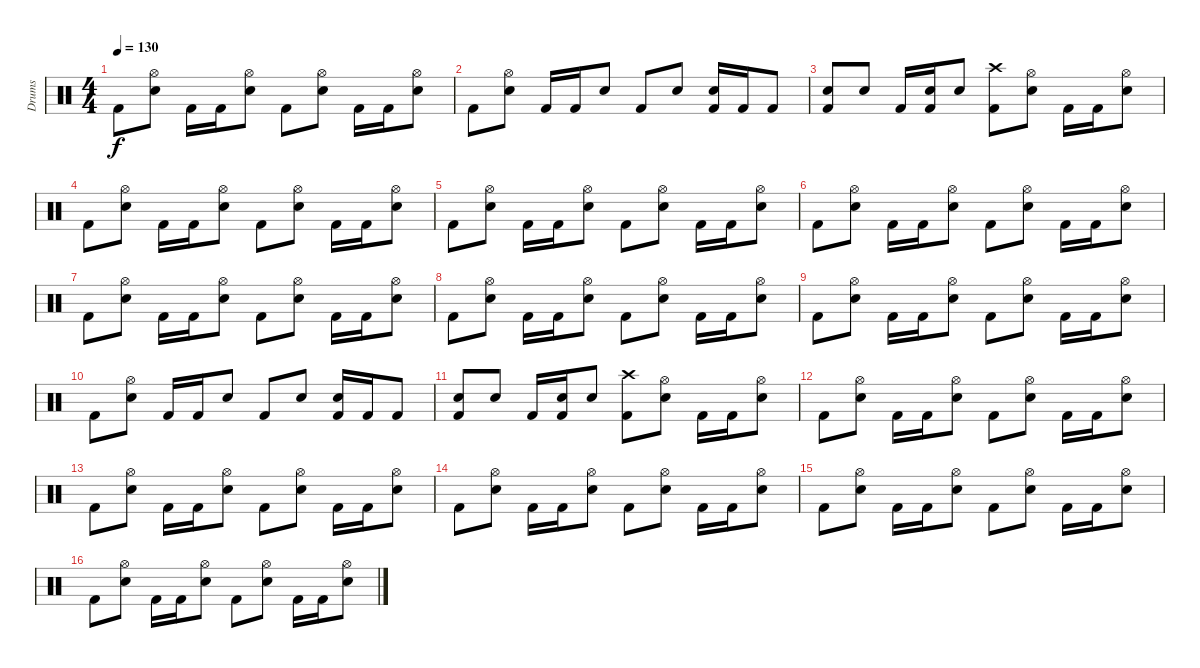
\track ("Drums" "Drums") {instrument percussion}
\staff {score}
\articulation defaults
\ts (4 4)
\tempo 130
\clef neutral
\ks c "Kick (hit) 2".8{dy f}
("Hi-Hat (open)" "Snare (hit) 2").8 "Kick (hit) 2".16 "Kick (hit) 2".16 ("Hi-Hat (open)" "Snare (hit) 2").8 "Kick (hit) 2".8 ("Hi-Hat (open)" "Snare (hit) 2").8 "Kick (hit) 2".16 "Kick (hit) 2".16 ("Hi-Hat (open)" "Snare (hit) 2").8 |
"Kick (hit) 2".8 ("Hi-Hat (open)" "Snare (hit) 2").8 "Kick (hit) 2".16 "Kick (hit) 2".16 "Snare (hit) 2".8 "Kick (hit) 2".8 "Snare (hit) 2".8 ("Snare (hit) 2" "Kick (hit) 2").16 "Kick (hit) 2".16 "Kick (hit) 2".8 |
("Snare (hit) 2" "Kick (hit) 2").8 "Snare (hit) 2".8 "Kick (hit) 2".16 ("Snare (hit) 2" "Kick (hit) 2").16 "Snare (hit) 2".8 ("Crash high (hit)" "Kick (hit) 2").8 ("Hi-Hat (open)" "Snare (hit) 2").8 "Kick (hit) 2".16 "Kick (hit) 2".16 ("Hi-Hat (open)" "Snare (hit) 2").8 |
"Kick (hit) 2".8 ("Hi-Hat (open)" "Snare (hit) 2").8 "Kick (hit) 2".16 "Kick (hit) 2".16 ("Hi-Hat (open)" "Snare (hit) 2").8 "Kick (hit) 2".8 ("Hi-Hat (open)" "Snare (hit) 2").8 "Kick (hit) 2".16 "Kick (hit) 2".16 ("Hi-Hat (open)" "Snare (hit) 2").8 |
"Kick (hit) 2".8 ("Hi-Hat (open)" "Snare (hit) 2").8 "Kick (hit) 2".16 "Kick (hit) 2".16 ("Hi-Hat (open)" "Snare (hit) 2").8 "Kick (hit) 2".8 ("Hi-Hat (open)" "Snare (hit) 2").8 "Kick (hit) 2".16 "Kick (hit) 2".16 ("Hi-Hat (open)" "Snare (hit) 2").8 |
"Kick (hit) 2".8 ("Hi-Hat (open)" "Snare (hit) 2").8 "Kick (hit) 2".16 "Kick (hit) 2".16 ("Hi-Hat (open)" "Snare (hit) 2").8 "Kick (hit) 2".8 ("Hi-Hat (open)" "Snare (hit) 2").8 "Kick (hit) 2".16 "Kick (hit) 2".16 ("Snare (hit) 2" "Hi-Hat (open)").8 |
"Kick (hit) 2".8 ("Hi-Hat (open)" "Snare (hit) 2").8 "Kick (hit) 2".16 "Kick (hit) 2".16 ("Hi-Hat (open)" "Snare (hit) 2").8 "Kick (hit) 2".8 ("Hi-Hat (open)" "Snare (hit) 2").8 "Kick (hit) 2".16 "Kick (hit) 2".16 ("Hi-Hat (open)" "Snare (hit) 2").8 |
"Kick (hit) 2".8 ("Hi-Hat (open)" "Snare (hit) 2").8 "Kick (hit) 2".16 "Kick (hit) 2".16 ("Hi-Hat (open)" "Snare (hit) 2").8 "Kick (hit) 2".8 ("Hi-Hat (open)" "Snare (hit) 2").8 "Kick (hit) 2".16 "Kick (hit) 2".16 ("Hi-Hat (open)" "Snare (hit) 2").8 |
"Kick (hit) 2".8 ("Hi-Hat (open)" "Snare (hit) 2").8 "Kick (hit) 2".16 "Kick (hit) 2".16 ("Hi-Hat (open)" "Snare (hit) 2").8 "Kick (hit) 2".8 ("Hi-Hat (open)" "Snare (hit) 2").8 "Kick (hit) 2".16 "Kick (hit) 2".16 ("Hi-Hat (open)" "Snare (hit) 2").8 |
"Kick (hit) 2".8 ("Hi-Hat (open)" "Snare (hit) 2").8 "Kick (hit) 2".16 "Kick (hit) 2".16 "Snare (hit) 2".8 "Kick (hit) 2".8 "Snare (hit) 2".8 ("Snare (hit) 2" "Kick (hit) 2").16 "Kick (hit) 2".16 "Kick (hit) 2".8 |
("Snare (hit) 2" "Kick (hit) 2").8 "Snare (hit) 2".8 "Kick (hit) 2".16 ("Snare (hit) 2" "Kick (hit) 2").16 "Snare (hit) 2".8 ("Crash high (hit)" "Kick (hit) 2").8 ("Hi-Hat (open)" "Snare (hit) 2").8 "Kick (hit) 2".16 "Kick (hit) 2".16 ("Hi-Hat (open)" "Snare (hit) 2").8 |
"Kick (hit) 2".8 ("Hi-Hat (open)" "Snare (hit) 2").8 "Kick (hit) 2".16 "Kick (hit) 2".16 ("Hi-Hat (open)" "Snare (hit) 2").8 "Kick (hit) 2".8 ("Hi-Hat (open)" "Snare (hit) 2").8 "Kick (hit) 2".16 "Kick (hit) 2".16 ("Hi-Hat (open)" "Snare (hit) 2").8 |
"Kick (hit) 2".8 ("Hi-Hat (open)" "Snare (hit) 2").8 "Kick (hit) 2".16 "Kick (hit) 2".16 ("Hi-Hat (open)" "Snare (hit) 2").8 "Kick (hit) 2".8 ("Hi-Hat (open)" "Snare (hit) 2").8 "Kick (hit) 2".16 "Kick (hit) 2".16 ("Hi-Hat (open)" "Snare (hit) 2").8 |
"Kick (hit) 2".8 ("Hi-Hat (open)" "Snare (hit) 2").8 "Kick (hit) 2".16 "Kick (hit) 2".16 ("Hi-Hat (open)" "Snare (hit) 2").8 "Kick (hit) 2".8 ("Hi-Hat (open)" "Snare (hit) 2").8 "Kick (hit) 2".16 "Kick (hit) 2".16 ("Hi-Hat (open)" "Snare (hit) 2").8 |
"Kick (hit) 2".8 ("Hi-Hat (open)" "Snare (hit) 2").8 "Kick (hit) 2".16 "Kick (hit) 2".16 ("Hi-Hat (open)" "Snare (hit) 2").8 "Kick (hit) 2".8 ("Hi-Hat (open)" "Snare (hit) 2").8 "Kick (hit) 2".16 "Kick (hit) 2".16 ("Hi-Hat (open)" "Snare (hit) 2").8 |
"Kick (hit) 2".8 ("Hi-Hat (open)" "Snare (hit) 2").8 "Kick (hit) 2".16 "Kick (hit) 2".16 ("Hi-Hat (open)" "Snare (hit) 2").8 "Kick (hit) 2".8 ("Hi-Hat (open)" "Snare (hit) 2").8 "Kick (hit) 2".16 "Kick (hit) 2".16 ("Hi-Hat (open)" "Snare (hit) 2").8
